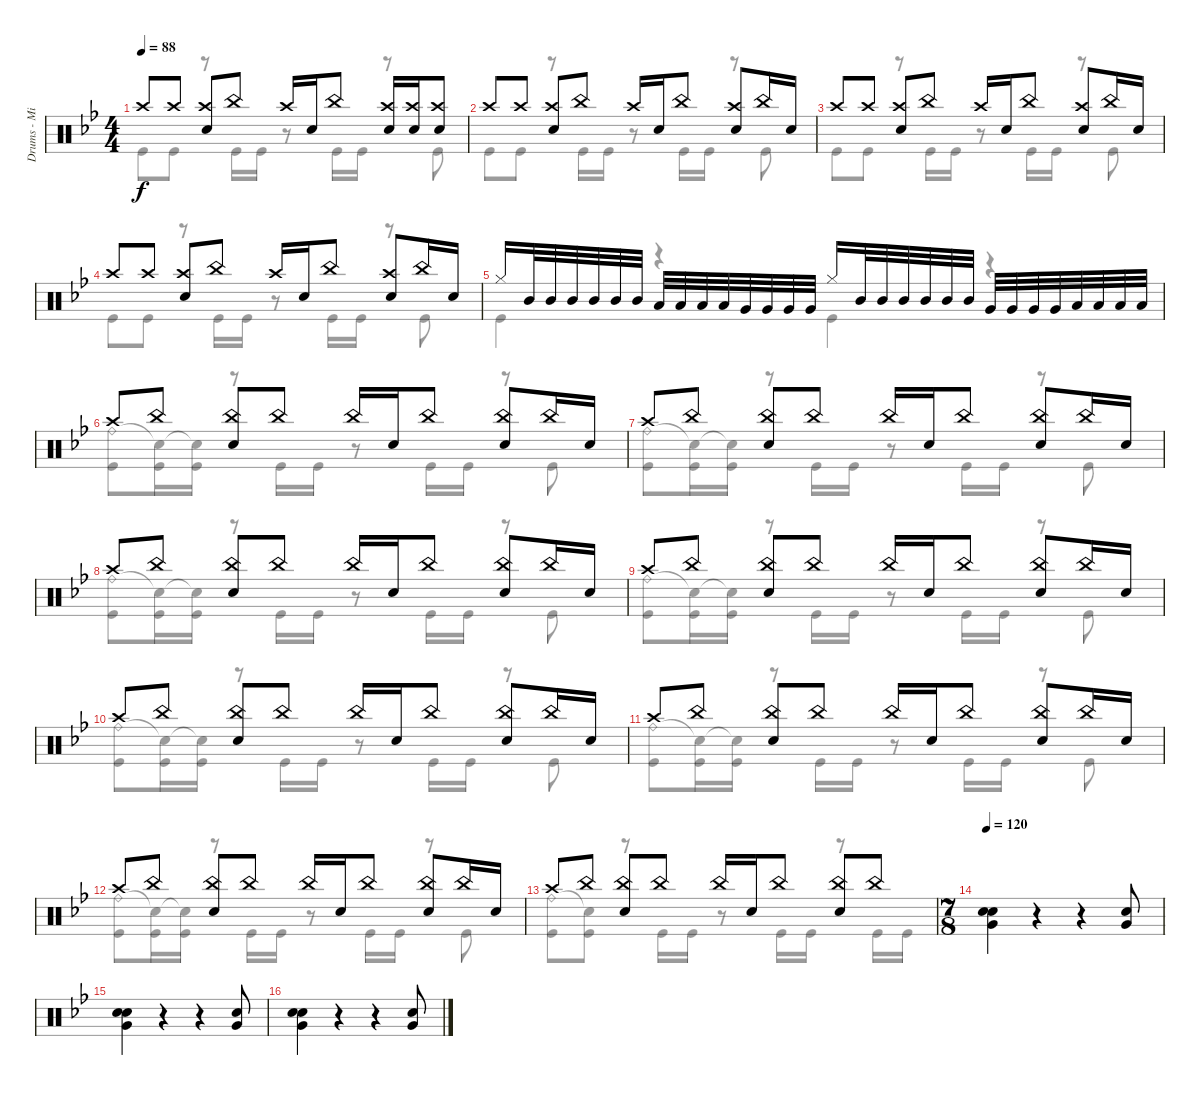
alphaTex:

\track ("Drums - Mike Portnoy" "Drums - Mi") {instrument percussion}
\staff {score}
\articulation defaults
\voice
\ts (4 4)
\tempo 88
\clef neutral
\ks bb "Crash high (hit)".8{dy f} "Crash high (hit)".8
("Crash high (hit)" "Snare (hit) 2").8 "China (hit)".8 "Crash high (hit)".16 "Snare (hit) 2".16 "China (hit)".8 ("Crash high (hit)" "Snare (hit) 2").16 ("Crash high (hit)" "Snare (hit) 2").16 ("Crash high (hit)" "Snare (hit) 2").8 |
"Crash high (hit)".8 "Crash high (hit)".8 ("Crash high (hit)" "Snare (hit) 2").8 "China (hit)".8 "Crash high (hit)".16 "Snare (hit) 2".16 "China (hit)".8 ("Crash high (hit)" "Snare (hit) 2").8 "China (hit)".16 "Snare (hit) 2".16 |
"Crash high (hit)".8 "Crash high (hit)".8 ("Crash high (hit)" "Snare (hit) 2").8 "China (hit)".8 "Crash high (hit)".16 "Snare (hit) 2".16 "China (hit)".8 ("Crash high (hit)" "Snare (hit) 2").8 "China (hit)".16 "Snare (hit) 2".16 |
"Crash high (hit)".8 "Crash high (hit)".8 ("Crash high (hit)" "Snare (hit) 2").8 "China (hit)".8 "Crash high (hit)".16 "Snare (hit) 2".16 "China (hit)".8 ("Crash high (hit)" "Snare (hit) 2").8 "China (hit)".16 "Snare (hit) 2".16 |
"Hi-Hat (closed)".16 "Mid Tom (hit)".32 "Mid Tom (hit)".32 "Mid Tom (hit)".32 "Mid Tom (hit)".32 "Mid Tom (hit)".32 "Mid Tom (hit)".32 "Low Tom (hit)".32 "Low Tom (hit)".32 "Low Tom (hit)".32 "Low Tom (hit)".32 "Very Low Tom (hit)".32 "Very Low Tom (hit)".32 "Very Low Tom (hit)".32 "Very Low Tom (hit)".32 "Hi-Hat (closed)".16 "Mid Tom (hit)".32 "Mid Tom (hit)".32 "Mid Tom (hit)".32 "Mid Tom (hit)".32 "Mid Tom (hit)".32 "Mid Tom (hit)".32 "Very Low Tom (hit)".32 "Very Low Tom (hit)".32 "Very Low Tom (hit)".32 "Very Low Tom (hit)".32 "Low Floor Tom (hit)".32 "Low Floor Tom (hit)".32 "Low Floor Tom (hit)".32 "Low Floor Tom (hit)".32 |
"Crash high (hit)".8 "China (hit)".8 ("China (hit)" "Snare (hit) 2").8 "China (hit)".8 "China (hit)".16 "Snare (hit) 2".16 "China (hit)".8 ("China (hit)" "Snare (hit) 2").8 "China (hit)".16 "Snare (hit) 2".16 |
"Crash high (hit)".8 "China (hit)".8 ("China (hit)" "Snare (hit) 2").8 "China (hit)".8 "China (hit)".16 "Snare (hit) 2".16 "China (hit)".8 ("China (hit)" "Snare (hit) 2").8 "China (hit)".16 "Snare (hit) 2".16 |
"Crash high (hit)".8 "China (hit)".8 ("China (hit)" "Snare (hit) 2").8 "China (hit)".8 "China (hit)".16 "Snare (hit) 2".16 "China (hit)".8 ("China (hit)" "Snare (hit) 2").8 "China (hit)".16 "Snare (hit) 2".16 |
"Crash high (hit)".8 "China (hit)".8 ("China (hit)" "Snare (hit) 2").8 "China (hit)".8 "China (hit)".16 "Snare (hit) 2".16 "China (hit)".8 ("China (hit)" "Snare (hit) 2").8 "China (hit)".16 "Snare (hit) 2".16 |
"Crash high (hit)".8 "China (hit)".8 ("China (hit)" "Snare (hit) 2").8 "China (hit)".8 "China (hit)".16 "Snare (hit) 2".16 "China (hit)".8 ("China (hit)" "Snare (hit) 2").8 "China (hit)".16 "Snare (hit) 2".16 |
"Crash high (hit)".8 "China (hit)".8 ("China (hit)" "Snare (hit) 2").8 "China (hit)".8 "China (hit)".16 "Snare (hit) 2".16 "China (hit)".8 ("China (hit)" "Snare (hit) 2").8 "China (hit)".16 "Snare (hit) 2".16 |
"Crash high (hit)".8 "China (hit)".8 ("China (hit)" "Snare (hit) 2").8 "China (hit)".8 "China (hit)".16 "Snare (hit) 2".16 "China (hit)".8 ("China (hit)" "Snare (hit) 2").8 "China (hit)".16 "Snare (hit) 2".16 |
"Crash high (hit)".8 "China (hit)".8 ("China (hit)" "Snare (hit) 2").8 "China (hit)".8 "China (hit)".16 "Snare (hit) 2".16 "China (hit)".8 ("China (hit)" "Snare (hit) 2").8 "China (hit)".8 |
\ts (7 8)
\tempo 120
("Snare (hit) 2" "Very Low Tom (hit)" "Metronome (bell)").4 r.4 r.4 ("Snare (hit) 2" "Very Low Tom (hit)").8 |
("Snare (hit) 2" "Very Low Tom (hit)" "Metronome (bell)").4 r.4 r.4 ("Snare (hit) 2" "Very Low Tom (hit)").8 |
("Snare (hit) 2" "Very Low Tom (hit)" "Metronome (bell)").4 r.4 r.4 ("Snare (hit) 2" "Very Low Tom (hit)").8
\voice
\clef neutral
\ottava regular
\simile none
\ks bb "Kick (hit)".8{dy f} "Kick (hit)".8
r.8 "Kick (hit)".16 "Kick (hit)".16 r.8 "Kick (hit)".16 "Kick (hit)".16 r.8 "Kick (hit)".8 |
"Kick (hit)".8 "Kick (hit)".8 r.8 "Kick (hit)".16 "Kick (hit)".16 r.8 "Kick (hit)".16 "Kick (hit)".16 r.8 "Kick (hit)".8 |
"Kick (hit)".8 "Kick (hit)".8 r.8 "Kick (hit)".16 "Kick (hit)".16 r.8 "Kick (hit)".16 "Kick (hit)".16 r.8 "Kick (hit)".8 |
"Kick (hit)".8 "Kick (hit)".8 r.8 "Kick (hit)".16 "Kick (hit)".16 r.8 "Kick (hit)".16 "Kick (hit)".16 r.8 "Kick (hit)".8 |
"Kick (hit)".4 r.4 "Kick (hit)".4 r.4 |
("Kick (hit)" "Ride (bell)").8 ("Kick (hit)" "Snare (hit)"{t}).16 ("Kick (hit)" "Snare (hit)"{t}).16 r.8 "Kick (hit)".16 "Kick (hit)".16 r.8 "Kick (hit)".16 "Kick (hit)".16 r.8 "Kick (hit)".8 |
("Kick (hit)" "Ride (bell)").8 ("Kick (hit)" "Snare (hit)"{t}).16 ("Kick (hit)" "Snare (hit)"{t}).16 r.8 "Kick (hit)".16 "Kick (hit)".16 r.8 "Kick (hit)".16 "Kick (hit)".16 r.8 "Kick (hit)".8 |
("Kick (hit)" "Ride (bell)").8 ("Kick (hit)" "Snare (hit)"{t}).16 ("Kick (hit)" "Snare (hit)"{t}).16 r.8 "Kick (hit)".16 "Kick (hit)".16 r.8 "Kick (hit)".16 "Kick (hit)".16 r.8 "Kick (hit)".8 |
("Kick (hit)" "Ride (bell)").8 ("Kick (hit)" "Snare (hit)"{t}).16 ("Kick (hit)" "Snare (hit)"{t}).16 r.8 "Kick (hit)".16 "Kick (hit)".16 r.8 "Kick (hit)".16 "Kick (hit)".16 r.8 "Kick (hit)".8 |
("Kick (hit)" "Ride (bell)").8 ("Kick (hit)" "Snare (hit)"{t}).16 ("Kick (hit)" "Snare (hit)"{t}).16 r.8 "Kick (hit)".16 "Kick (hit)".16 r.8 "Kick (hit)".16 "Kick (hit)".16 r.8 "Kick (hit)".8 |
("Kick (hit)" "Ride (bell)").8 ("Kick (hit)" "Snare (hit)"{t}).16 ("Kick (hit)" "Snare (hit)"{t}).16 r.8 "Kick (hit)".16 "Kick (hit)".16 r.8 "Kick (hit)".16 "Kick (hit)".16 r.8 "Kick (hit)".8 |
("Kick (hit)" "Ride (bell)").8 ("Kick (hit)" "Snare (hit)"{t}).16 ("Kick (hit)" "Snare (hit)"{t}).16 r.8 "Kick (hit)".16 "Kick (hit)".16 r.8 "Kick (hit)".16 "Kick (hit)".16 r.8 "Kick (hit)".8 |
("Kick (hit)" "Ride (bell)").8 ("Kick (hit)" "Snare (hit)"{t}).8 r.8 "Kick (hit)".16 "Kick (hit)".16 r.8 "Kick (hit)".16 "Kick (hit)".16 r.8 "Kick (hit)".16 "Kick (hit)".16 |
|
|
